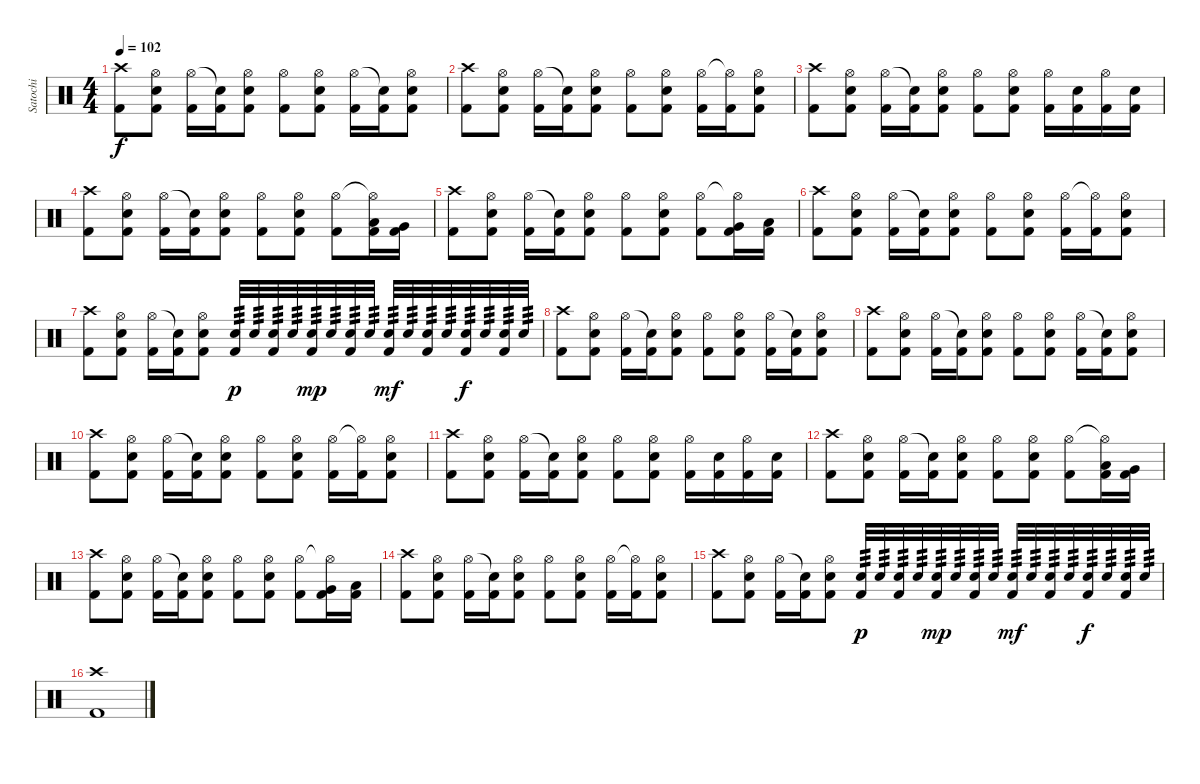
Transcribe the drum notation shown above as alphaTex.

\track ("Satochi" "Satochi") {instrument percussion}
\staff {score}
\articulation defaults
\ts (4 4)
\tempo 102
\clef neutral
\ks c
("Crash high (hit)" "Kick (hit) 2").8{dy f} ("Hi-Hat (open)" "Electric Snare (hit)" "Kick (hit) 2").8 ("Hi-Hat (open)" "Kick (hit) 2").16 ("Snare (hit)"{t} "Kick (hit) 2").16 ("Hi-Hat (open)" "Electric Snare (hit)" "Kick (hit) 2").8 ("Hi-Hat (open)" "Kick (hit) 2").8 ("Hi-Hat (open)" "Electric Snare (hit)" "Kick (hit) 2").8 ("Hi-Hat (open)" "Kick (hit) 2").16 ("Snare (hit)"{t} "Kick (hit) 2").16 ("Hi-Hat (open)" "Electric Snare (hit)" "Kick (hit) 2").8 |
("Crash high (hit)" "Kick (hit) 2").8 ("Hi-Hat (open)" "Electric Snare (hit)" "Kick (hit) 2").8 ("Hi-Hat (open)" "Kick (hit) 2").16 ("Snare (hit)"{t} "Kick (hit) 2").16 ("Hi-Hat (open)" "Electric Snare (hit)" "Kick (hit) 2").8 ("Hi-Hat (open)" "Kick (hit) 2").8 ("Hi-Hat (open)" "Electric Snare (hit)" "Kick (hit) 2").8 ("Hi-Hat (open)" "Kick (hit) 2").16 ("Hi-Hat (open)"{t} "Kick (hit) 2").16 ("Hi-Hat (open)" "Electric Snare (hit)" "Kick (hit) 2").8 |
("Crash high (hit)" "Kick (hit) 2").8 ("Hi-Hat (open)" "Electric Snare (hit)" "Kick (hit) 2").8 ("Hi-Hat (open)" "Kick (hit) 2").16 ("Snare (hit)"{t} "Kick (hit) 2").16 ("Hi-Hat (open)" "Electric Snare (hit)" "Kick (hit) 2").8 ("Hi-Hat (open)" "Kick (hit) 2").8 ("Hi-Hat (open)" "Electric Snare (hit)" "Kick (hit) 2").8 ("Hi-Hat (open)" "Kick (hit) 2").16 ("Electric Snare (hit)" "Kick (hit) 2").16 ("Hi-Hat (open)" "Kick (hit) 2").16 ("Electric Snare (hit)" "Kick (hit) 2").16 |
("Crash high (hit)" "Kick (hit) 2").8 ("Hi-Hat (open)" "Electric Snare (hit)" "Kick (hit) 2").8 ("Hi-Hat (open)" "Kick (hit) 2").16 ("Snare (hit)"{t} "Kick (hit) 2").16 ("Hi-Hat (open)" "Electric Snare (hit)" "Kick (hit) 2").8 ("Hi-Hat (open)" "Kick (hit) 2").8 ("Hi-Hat (open)" "Electric Snare (hit)" "Kick (hit) 2").8 ("Hi-Hat (open)" "Kick (hit) 2").8 ("Hi-Hat (open)"{t} "Low Tom (hit)" "Kick (hit) 2").16 ("Very Low Tom (hit)" "Kick (hit) 2").16 |
("Crash high (hit)" "Kick (hit) 2").8 ("Hi-Hat (open)" "Electric Snare (hit)" "Kick (hit) 2").8 ("Hi-Hat (open)" "Kick (hit) 2").16 ("Snare (hit)"{t} "Kick (hit) 2").16 ("Hi-Hat (open)" "Electric Snare (hit)" "Kick (hit) 2").8 ("Hi-Hat (open)" "Kick (hit) 2").8 ("Hi-Hat (open)" "Electric Snare (hit)" "Kick (hit) 2").8 ("Hi-Hat (open)" "Kick (hit) 2").8 ("Hi-Hat (open)"{t} "Very Low Tom (hit)" "Kick (hit) 2").16 ("Low Tom (hit)" "Kick (hit) 2").16 |
("Crash high (hit)" "Kick (hit) 2").8 ("Hi-Hat (open)" "Electric Snare (hit)" "Kick (hit) 2").8 ("Hi-Hat (open)" "Kick (hit) 2").16 ("Snare (hit)"{t} "Kick (hit) 2").16 ("Hi-Hat (open)" "Electric Snare (hit)" "Kick (hit) 2").8 ("Hi-Hat (open)" "Kick (hit) 2").8 ("Hi-Hat (open)" "Electric Snare (hit)" "Kick (hit) 2").8 ("Hi-Hat (open)" "Kick (hit) 2").16 ("Hi-Hat (open)"{t} "Kick (hit) 2").16 ("Hi-Hat (open)" "Electric Snare (hit)" "Kick (hit) 2").8 |
("Crash high (hit)" "Kick (hit) 2").8 ("Hi-Hat (open)" "Electric Snare (hit)" "Kick (hit) 2").8 ("Hi-Hat (open)" "Kick (hit) 2").16 ("Snare (hit)"{t} "Kick (hit) 2").16 ("Hi-Hat (open)" "Electric Snare (hit)" "Kick (hit) 2").8 ("Electric Snare (hit)" "Kick (hit) 2").32{tp 3 dy p} "Electric Snare (hit)".32{tp 3} ("Electric Snare (hit)" "Kick (hit) 2").32{tp 3} "Electric Snare (hit)".32{tp 3} ("Electric Snare (hit)" "Kick (hit) 2").32{tp 3 dy mp} "Electric Snare (hit)".32{tp 3} ("Electric Snare (hit)" "Kick (hit) 2").32{tp 3} "Electric Snare (hit)".32{tp 3} ("Electric Snare (hit)" "Kick (hit) 2").32{tp 3 dy mf} "Electric Snare (hit)".32{tp 3} ("Electric Snare (hit)" "Kick (hit) 2").32{tp 3} "Electric Snare (hit)".32{tp 3} ("Electric Snare (hit)" "Kick (hit) 2").32{tp 3 dy f} "Electric Snare (hit)".32{tp 3} ("Electric Snare (hit)" "Kick (hit) 2").32{tp 3} "Electric Snare (hit)".32{tp 3} |
("Crash high (hit)" "Kick (hit) 2").8 ("Hi-Hat (open)" "Electric Snare (hit)" "Kick (hit) 2").8 ("Hi-Hat (open)" "Kick (hit) 2").16 ("Snare (hit)"{t} "Kick (hit) 2").16 ("Hi-Hat (open)" "Electric Snare (hit)" "Kick (hit) 2").8 ("Hi-Hat (open)" "Kick (hit) 2").8 ("Hi-Hat (open)" "Electric Snare (hit)" "Kick (hit) 2").8 ("Hi-Hat (open)" "Kick (hit) 2").16 ("Snare (hit)"{t} "Kick (hit) 2").16 ("Hi-Hat (open)" "Electric Snare (hit)" "Kick (hit) 2").8 |
("Crash high (hit)" "Kick (hit) 2").8 ("Hi-Hat (open)" "Electric Snare (hit)" "Kick (hit) 2").8 ("Hi-Hat (open)" "Kick (hit) 2").16 ("Snare (hit)"{t} "Kick (hit) 2").16 ("Hi-Hat (open)" "Electric Snare (hit)" "Kick (hit) 2").8 ("Hi-Hat (open)" "Kick (hit) 2").8 ("Hi-Hat (open)" "Electric Snare (hit)" "Kick (hit) 2").8 ("Hi-Hat (open)" "Kick (hit) 2").16 ("Snare (hit)"{t} "Kick (hit) 2").16 ("Hi-Hat (open)" "Electric Snare (hit)" "Kick (hit) 2").8 |
("Crash high (hit)" "Kick (hit) 2").8 ("Hi-Hat (open)" "Electric Snare (hit)" "Kick (hit) 2").8 ("Hi-Hat (open)" "Kick (hit) 2").16 ("Snare (hit)"{t} "Kick (hit) 2").16 ("Hi-Hat (open)" "Electric Snare (hit)" "Kick (hit) 2").8 ("Hi-Hat (open)" "Kick (hit) 2").8 ("Hi-Hat (open)" "Electric Snare (hit)" "Kick (hit) 2").8 ("Hi-Hat (open)" "Kick (hit) 2").16 ("Hi-Hat (open)"{t} "Kick (hit) 2").16 ("Hi-Hat (open)" "Electric Snare (hit)" "Kick (hit) 2").8 |
("Crash high (hit)" "Kick (hit) 2").8 ("Hi-Hat (open)" "Electric Snare (hit)" "Kick (hit) 2").8 ("Hi-Hat (open)" "Kick (hit) 2").16 ("Snare (hit)"{t} "Kick (hit) 2").16 ("Hi-Hat (open)" "Electric Snare (hit)" "Kick (hit) 2").8 ("Hi-Hat (open)" "Kick (hit) 2").8 ("Hi-Hat (open)" "Electric Snare (hit)" "Kick (hit) 2").8 ("Hi-Hat (open)" "Kick (hit) 2").16 ("Electric Snare (hit)" "Kick (hit) 2").16 ("Hi-Hat (open)" "Kick (hit) 2").16 ("Electric Snare (hit)" "Kick (hit) 2").16 |
("Crash high (hit)" "Kick (hit) 2").8 ("Hi-Hat (open)" "Electric Snare (hit)" "Kick (hit) 2").8 ("Hi-Hat (open)" "Kick (hit) 2").16 ("Snare (hit)"{t} "Kick (hit) 2").16 ("Hi-Hat (open)" "Electric Snare (hit)" "Kick (hit) 2").8 ("Hi-Hat (open)" "Kick (hit) 2").8 ("Hi-Hat (open)" "Electric Snare (hit)" "Kick (hit) 2").8 ("Hi-Hat (open)" "Kick (hit) 2").8 ("Hi-Hat (open)"{t} "Low Tom (hit)" "Kick (hit) 2").16 ("Very Low Tom (hit)" "Kick (hit) 2").16 |
("Crash high (hit)" "Kick (hit) 2").8 ("Hi-Hat (open)" "Electric Snare (hit)" "Kick (hit) 2").8 ("Hi-Hat (open)" "Kick (hit) 2").16 ("Snare (hit)"{t} "Kick (hit) 2").16 ("Hi-Hat (open)" "Electric Snare (hit)" "Kick (hit) 2").8 ("Hi-Hat (open)" "Kick (hit) 2").8 ("Hi-Hat (open)" "Electric Snare (hit)" "Kick (hit) 2").8 ("Hi-Hat (open)" "Kick (hit) 2").8 ("Hi-Hat (open)"{t} "Very Low Tom (hit)" "Kick (hit) 2").16 ("Low Tom (hit)" "Kick (hit) 2").16 |
("Crash high (hit)" "Kick (hit) 2").8 ("Hi-Hat (open)" "Electric Snare (hit)" "Kick (hit) 2").8 ("Hi-Hat (open)" "Kick (hit) 2").16 ("Snare (hit)"{t} "Kick (hit) 2").16 ("Hi-Hat (open)" "Electric Snare (hit)" "Kick (hit) 2").8 ("Hi-Hat (open)" "Kick (hit) 2").8 ("Hi-Hat (open)" "Electric Snare (hit)" "Kick (hit) 2").8 ("Hi-Hat (open)" "Kick (hit) 2").16 ("Hi-Hat (open)"{t} "Kick (hit) 2").16 ("Hi-Hat (open)" "Electric Snare (hit)" "Kick (hit) 2").8 |
("Crash high (hit)" "Kick (hit) 2").8 ("Hi-Hat (open)" "Electric Snare (hit)" "Kick (hit) 2").8 ("Hi-Hat (open)" "Kick (hit) 2").16 ("Snare (hit)"{t} "Kick (hit) 2").16 ("Hi-Hat (open)" "Electric Snare (hit)" "Kick (hit) 2").8 ("Electric Snare (hit)" "Kick (hit) 2").32{tp 3 dy p} "Electric Snare (hit)".32{tp 3} ("Electric Snare (hit)" "Kick (hit) 2").32{tp 3} "Electric Snare (hit)".32{tp 3} ("Electric Snare (hit)" "Kick (hit) 2").32{tp 3 dy mp} "Electric Snare (hit)".32{tp 3} ("Electric Snare (hit)" "Kick (hit) 2").32{tp 3} "Electric Snare (hit)".32{tp 3} ("Electric Snare (hit)" "Kick (hit) 2").32{tp 3 dy mf} "Electric Snare (hit)".32{tp 3} ("Electric Snare (hit)" "Kick (hit) 2").32{tp 3} "Electric Snare (hit)".32{tp 3} ("Electric Snare (hit)" "Kick (hit) 2").32{tp 3 dy f} "Electric Snare (hit)".32{tp 3} ("Electric Snare (hit)" "Kick (hit) 2").32{tp 3} "Electric Snare (hit)".32{tp 3} |
("Crash high (hit)" "Kick (hit) 2").1
